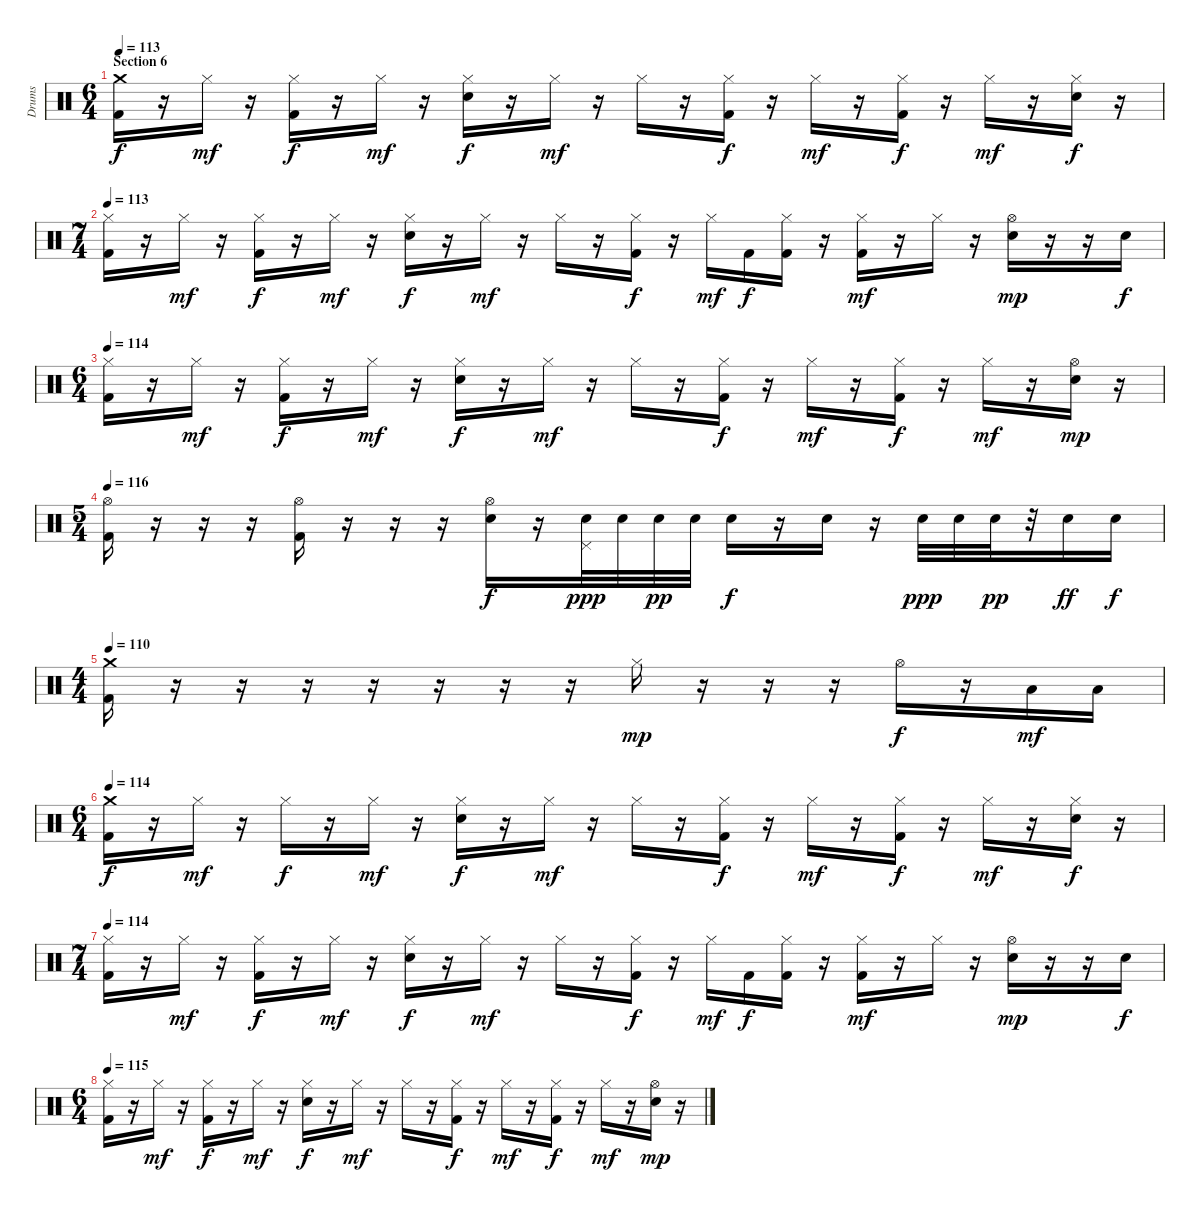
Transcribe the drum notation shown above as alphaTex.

\track ("Drums" "Drums") {instrument percussion}
\staff {score}
\articulation defaults
\ts (6 4)
\section ("" "Section 6")
\tempo 113
\clef neutral
\ks c
("Crash medium (hit)" "Kick (hit) 2").16{dy f} r.16 "Hi-Hat (closed)".16{dy mf} r.16 ("Hi-Hat (closed)" "Kick (hit) 2").16{dy f} r.16 "Hi-Hat (closed)".16{dy mf} r.16 ("Hi-Hat (closed)" "Electric Snare (hit)").16{dy f} r.16 "Hi-Hat (closed)".16{dy mf} r.16 "Hi-Hat (closed)".16 r.16 ("Hi-Hat (closed)" "Kick (hit) 2").16{dy f} r.16 "Hi-Hat (closed)".16{dy mf} r.16 ("Hi-Hat (closed)" "Kick (hit) 2").16{dy f} r.16 "Hi-Hat (closed)".16{dy mf} r.16 ("Hi-Hat (closed)" "Electric Snare (hit)").16{dy f} r.16 |
\ts (7 4)
\tempo 113
("Hi-Hat (closed)" "Kick (hit) 2").16 r.16 "Hi-Hat (closed)".16{dy mf} r.16 ("Hi-Hat (closed)" "Kick (hit) 2").16{dy f} r.16 "Hi-Hat (closed)".16{dy mf} r.16 ("Hi-Hat (closed)" "Electric Snare (hit)").16{dy f} r.16 "Hi-Hat (closed)".16{dy mf} r.16 "Hi-Hat (closed)".16 r.16 ("Hi-Hat (closed)" "Kick (hit) 2").16{dy f} r.16 "Hi-Hat (closed)".16{dy mf} "Kick (hit) 2".16{dy f} ("Hi-Hat (closed)" "Kick (hit) 2").16 r.16 ("Hi-Hat (closed)" "Kick (hit) 2").16{dy mf} r.16 "Hi-Hat (closed)".16 r.16 ("Hi-Hat (open)" "Electric Snare (hit)").16{dy mp} r.16 r.16 "Electric Snare (hit)".16{dy f} |
\ts (6 4)
\tempo 114
("Hi-Hat (closed)" "Kick (hit) 2").16 r.16 "Hi-Hat (closed)".16{dy mf} r.16 ("Hi-Hat (closed)" "Kick (hit) 2").16{dy f} r.16 "Hi-Hat (closed)".16{dy mf} r.16 ("Hi-Hat (closed)" "Electric Snare (hit)").16{dy f} r.16 "Hi-Hat (closed)".16{dy mf} r.16 "Hi-Hat (closed)".16 r.16 ("Hi-Hat (closed)" "Kick (hit) 2").16{dy f} r.16 "Hi-Hat (closed)".16{dy mf} r.16 ("Hi-Hat (closed)" "Kick (hit) 2").16{dy f} r.16 "Hi-Hat (closed)".16{dy mf} r.16 ("Hi-Hat (open)" "Electric Snare (hit)").16{dy mp} r.16 |
\ts (5 4)
\tempo 116
("Hi-Hat (open)" "Kick (hit) 2").16 r.16 r.16 r.16 ("Hi-Hat (open)" "Kick (hit) 2").16 r.16 r.16 r.16 ("Hi-Hat (open)" "Electric Snare (hit)").16{dy f} r.16 ("Pedal Hi-Hat (hit)" "Electric Snare (hit)").32{dy ppp} "Electric Snare (hit)".32 "Electric Snare (hit)".32{dy pp} "Electric Snare (hit)".32 "Electric Snare (hit)".16{dy f} r.16 "Electric Snare (hit)".16 r.16 "Electric Snare (hit)".32{dy ppp} "Electric Snare (hit)".32 "Electric Snare (hit)".32{dy pp} r.32 "Electric Snare (hit)".16{dy ff} "Electric Snare (hit)".16{dy f} |
\ts (4 4)
\tempo 110
("Crash medium (hit)" "Kick (hit) 2").16 r.16 r.16 r.16 r.16 r.16 r.16 r.16 "Hi-Hat (closed)".16{dy mp} r.16 r.16 r.16 "Hi-Hat (open)".16{dy f} r.16 "Low Tom (hit)".16{dy mf} "Low Tom (hit)".16 |
\ts (6 4)
\tempo 114
("Crash medium (hit)" "Kick (hit) 2").16{dy f} r.16 "Hi-Hat (closed)".16{dy mf} r.16 "Hi-Hat (closed)".16{dy f} r.16 "Hi-Hat (closed)".16{dy mf} r.16 ("Hi-Hat (closed)" "Electric Snare (hit)").16{dy f} r.16 "Hi-Hat (closed)".16{dy mf} r.16 "Hi-Hat (closed)".16 r.16 ("Hi-Hat (closed)" "Kick (hit) 2").16{dy f} r.16 "Hi-Hat (closed)".16{dy mf} r.16 ("Hi-Hat (closed)" "Kick (hit) 2").16{dy f} r.16 "Hi-Hat (closed)".16{dy mf} r.16 ("Hi-Hat (closed)" "Electric Snare (hit)").16{dy f} r.16 |
\ts (7 4)
\tempo 114
("Hi-Hat (closed)" "Kick (hit) 2").16 r.16 "Hi-Hat (closed)".16{dy mf} r.16 ("Hi-Hat (closed)" "Kick (hit) 2").16{dy f} r.16 "Hi-Hat (closed)".16{dy mf} r.16 ("Hi-Hat (closed)" "Electric Snare (hit)").16{dy f} r.16 "Hi-Hat (closed)".16{dy mf} r.16 "Hi-Hat (closed)".16 r.16 ("Hi-Hat (closed)" "Kick (hit) 2").16{dy f} r.16 "Hi-Hat (closed)".16{dy mf} "Kick (hit) 2".16{dy f} ("Hi-Hat (closed)" "Kick (hit) 2").16 r.16 ("Hi-Hat (closed)" "Kick (hit) 2").16{dy mf} r.16 "Hi-Hat (closed)".16 r.16 ("Hi-Hat (open)" "Electric Snare (hit)").16{dy mp} r.16 r.16 "Electric Snare (hit)".16{dy f} |
\ts (6 4)
\tempo 115
("Hi-Hat (closed)" "Kick (hit) 2").16 r.16 "Hi-Hat (closed)".16{dy mf} r.16 ("Hi-Hat (closed)" "Kick (hit) 2").16{dy f} r.16 "Hi-Hat (closed)".16{dy mf} r.16 ("Hi-Hat (closed)" "Electric Snare (hit)").16{dy f} r.16 "Hi-Hat (closed)".16{dy mf} r.16 "Hi-Hat (closed)".16 r.16 ("Hi-Hat (closed)" "Kick (hit) 2").16{dy f} r.16 "Hi-Hat (closed)".16{dy mf} r.16 ("Hi-Hat (closed)" "Kick (hit) 2").16{dy f} r.16 "Hi-Hat (closed)".16{dy mf} r.16 ("Hi-Hat (open)" "Electric Snare (hit)").16{dy mp} r.16
